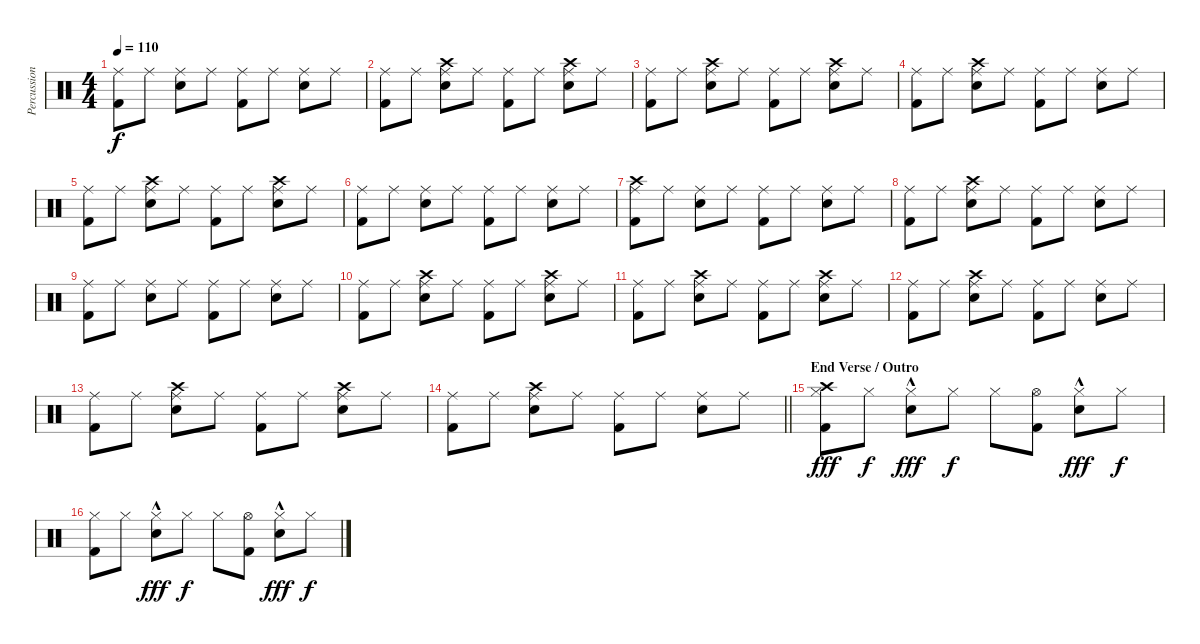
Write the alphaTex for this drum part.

\track ("Percussion" "Percussion") {instrument percussion}
\staff {score}
\articulation defaults
\ts (4 4)
\tempo 110
\clef neutral
\ks c
("Ride (middle)" "Kick (hit) 2").8{dy f} "Ride (middle)".8 ("Ride (middle)" "Electric Snare (hit)").8 "Ride (middle)".8 ("Ride (middle)" "Kick (hit) 2").8 "Ride (middle)".8 ("Ride (middle)" "Electric Snare (hit)").8 "Ride (middle)".8 |
("Ride (middle)" "Kick (hit) 2").8 "Ride (middle)".8 ("Crash high (hit)" "Ride (middle)" "Electric Snare (hit)").8 "Ride (middle)".8 ("Ride (middle)" "Kick (hit) 2").8 "Ride (middle)".8 ("Crash high (hit)" "Ride (middle)" "Electric Snare (hit)").8 "Ride (middle)".8 |
("Ride (middle)" "Kick (hit) 2").8 "Ride (middle)".8 ("Crash high (hit)" "Ride (middle)" "Electric Snare (hit)").8 "Ride (middle)".8 ("Ride (middle)" "Kick (hit) 2").8 "Ride (middle)".8 ("Crash high (hit)" "Ride (middle)" "Electric Snare (hit)").8 "Ride (middle)".8 |
("Ride (middle)" "Kick (hit) 2").8 "Ride (middle)".8 ("Crash high (hit)" "Ride (middle)" "Electric Snare (hit)").8 "Ride (middle)".8 ("Ride (middle)" "Kick (hit) 2").8 "Ride (middle)".8 ("Ride (middle)" "Electric Snare (hit)").8 "Ride (middle)".8 |
("Ride (middle)" "Kick (hit) 2").8 "Ride (middle)".8 ("Crash high (hit)" "Ride (middle)" "Electric Snare (hit)").8 "Ride (middle)".8 ("Ride (middle)" "Kick (hit) 2").8 "Ride (middle)".8 ("Crash high (hit)" "Ride (middle)" "Electric Snare (hit)").8 "Ride (middle)".8 |
("Ride (middle)" "Kick (hit) 2").8 "Ride (middle)".8 ("Ride (middle)" "Electric Snare (hit)").8 "Ride (middle)".8 ("Ride (middle)" "Kick (hit) 2").8 "Ride (middle)".8 ("Ride (middle)" "Electric Snare (hit)").8 "Ride (middle)".8 |
("Crash high (hit)" "Ride (middle)" "Kick (hit) 2").8 "Ride (middle)".8 ("Ride (middle)" "Electric Snare (hit)").8 "Ride (middle)".8 ("Ride (middle)" "Kick (hit) 2").8 "Ride (middle)".8 ("Ride (middle)" "Electric Snare (hit)").8 "Ride (middle)".8 |
("Ride (middle)" "Kick (hit) 2").8 "Ride (middle)".8 ("Crash high (hit)" "Ride (middle)" "Electric Snare (hit)").8 "Ride (middle)".8 ("Ride (middle)" "Kick (hit) 2").8 "Ride (middle)".8 ("Ride (middle)" "Electric Snare (hit)").8 "Ride (middle)".8 |
("Ride (middle)" "Kick (hit) 2").8 "Ride (middle)".8 ("Ride (middle)" "Electric Snare (hit)").8 "Ride (middle)".8 ("Ride (middle)" "Kick (hit) 2").8 "Ride (middle)".8 ("Ride (middle)" "Electric Snare (hit)").8 "Ride (middle)".8 |
("Ride (middle)" "Kick (hit) 2").8 "Ride (middle)".8 ("Crash high (hit)" "Ride (middle)" "Electric Snare (hit)").8 "Ride (middle)".8 ("Ride (middle)" "Kick (hit) 2").8 "Ride (middle)".8 ("Crash high (hit)" "Ride (middle)" "Electric Snare (hit)").8 "Ride (middle)".8 |
("Ride (middle)" "Kick (hit) 2").8 "Ride (middle)".8 ("Crash high (hit)" "Ride (middle)" "Electric Snare (hit)").8 "Ride (middle)".8 ("Ride (middle)" "Kick (hit) 2").8 "Ride (middle)".8 ("Crash high (hit)" "Ride (middle)" "Electric Snare (hit)").8 "Ride (middle)".8 |
("Ride (middle)" "Kick (hit) 2").8 "Ride (middle)".8 ("Crash high (hit)" "Ride (middle)" "Electric Snare (hit)").8 "Ride (middle)".8 ("Ride (middle)" "Kick (hit) 2").8 "Ride (middle)".8 ("Ride (middle)" "Electric Snare (hit)").8 "Ride (middle)".8 |
("Ride (middle)" "Kick (hit) 2").8 "Ride (middle)".8 ("Crash high (hit)" "Ride (middle)" "Electric Snare (hit)").8 "Ride (middle)".8 ("Ride (middle)" "Kick (hit) 2").8 "Ride (middle)".8 ("Crash high (hit)" "Ride (middle)" "Electric Snare (hit)").8 "Ride (middle)".8 |
\barLineRight lightlight
("Ride (middle)" "Kick (hit) 2").8 "Ride (middle)".8 ("Crash high (hit)" "Ride (middle)" "Electric Snare (hit)").8 "Ride (middle)".8 ("Ride (middle)" "Kick (hit) 2").8 "Ride (middle)".8 ("Ride (middle)" "Electric Snare (hit)").8 "Ride (middle)".8 |
\section ("" "End Verse / Outro")
("Crash high (hit)" "Hi-Hat (closed)" "Kick (hit) 2").8{dy fff} "Hi-Hat (closed)".8{dy f} ("Hi-Hat (closed)"{hac} "Electric Snare (hit)").8{dy fff} "Hi-Hat (closed)".8{dy f} "Hi-Hat (closed)".8 ("Hi-Hat (open)" "Kick (hit) 2").8 ("Hi-Hat (closed)"{hac} "Electric Snare (hit)").8{dy fff} "Hi-Hat (closed)".8{dy f} |
("Hi-Hat (closed)" "Kick (hit) 2").8 "Hi-Hat (closed)".8 ("Hi-Hat (closed)"{hac} "Electric Snare (hit)").8{dy fff} "Hi-Hat (closed)".8{dy f} "Hi-Hat (closed)".8 ("Hi-Hat (open)" "Kick (hit) 2").8 ("Hi-Hat (closed)"{hac} "Snare (hit) 2").8{dy fff} "Hi-Hat (closed)".8{dy f}
